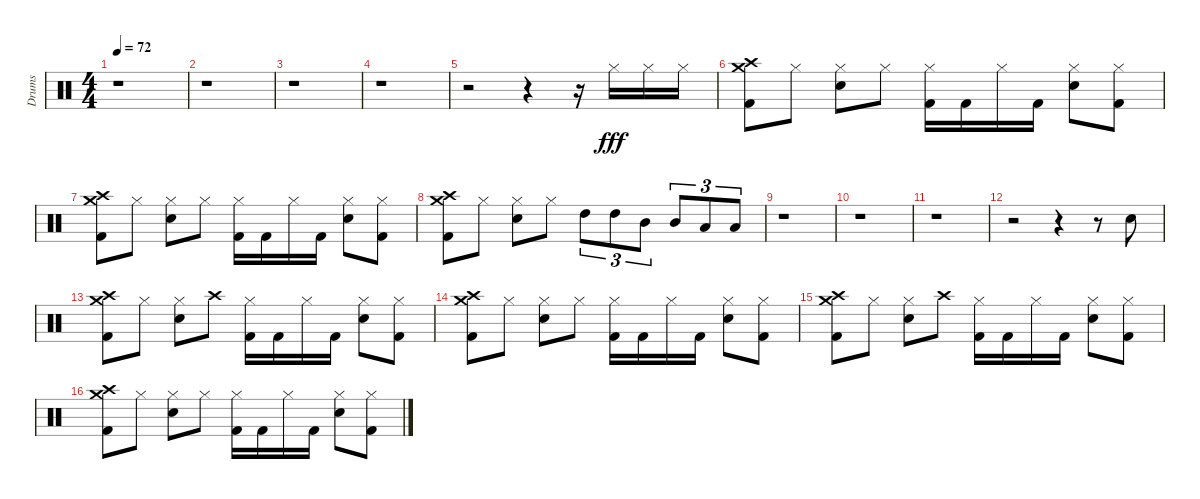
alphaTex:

\track ("Drums" "Drums") {instrument percussion}
\staff {score}
\articulation defaults
\ts (4 4)
\tempo 72
\clef neutral
\ks c
r.1{dy fff} |
r.1 |
r.1 |
r.1 |
r.2 r.4 r.16 "Hi-Hat (closed)".16 "Hi-Hat (closed)".16 "Hi-Hat (closed)".16 |
("Crash high (hit)" "Crash medium (hit)" "Kick (hit) 2").8 "Hi-Hat (closed)".8 ("Hi-Hat (closed)" "Electric Snare (hit)").8 "Hi-Hat (closed)".8 ("Hi-Hat (closed)" "Kick (hit) 2").16 "Kick (hit) 2".16 "Hi-Hat (closed)".16 "Kick (hit) 2".16 ("Hi-Hat (closed)" "Electric Snare (hit)").8 ("Hi-Hat (closed)" "Kick (hit) 2").8 |
("Crash high (hit)" "Crash medium (hit)" "Kick (hit) 2").8 "Hi-Hat (closed)".8 ("Hi-Hat (closed)" "Electric Snare (hit)").8 "Hi-Hat (closed)".8 ("Hi-Hat (closed)" "Kick (hit) 2").16 "Kick (hit) 2".16 "Hi-Hat (closed)".16 "Kick (hit) 2".16 ("Hi-Hat (closed)" "Electric Snare (hit)").8 ("Hi-Hat (closed)" "Kick (hit) 2").8 |
("Crash high (hit)" "Crash medium (hit)" "Kick (hit) 2").8 "Hi-Hat (closed)".8 ("Hi-Hat (closed)" "Electric Snare (hit)").8 "Hi-Hat (closed)".8 "High Tom (hit)".8{tu (3 2)} "High Tom (hit)".8{tu (3 2)} "Mid Tom (hit)".8{tu (3 2)} "Mid Tom (hit)".8{tu (3 2)} "Low Tom (hit)".8{tu (3 2)} "Low Tom (hit)".8{tu (3 2)} |
r.1 |
r.1 |
r.1 |
r.2 r.4 r.8 "Electric Snare (hit)".8 |
("Crash high (hit)" "Crash medium (hit)" "Kick (hit) 2").8 "Hi-Hat (closed)".8 ("Hi-Hat (closed)" "Electric Snare (hit)").8 "Crash high (hit)".8 ("Hi-Hat (closed)" "Kick (hit) 2").16 "Kick (hit) 2".16 "Hi-Hat (closed)".16 "Kick (hit) 2".16 ("Hi-Hat (closed)" "Electric Snare (hit)").8 ("Hi-Hat (closed)" "Kick (hit) 2").8 |
("Crash high (hit)" "Crash medium (hit)" "Kick (hit) 2").8 "Hi-Hat (closed)".8 ("Hi-Hat (closed)" "Electric Snare (hit)").8 "Hi-Hat (closed)".8 ("Hi-Hat (closed)" "Kick (hit) 2").16 "Kick (hit) 2".16 "Hi-Hat (closed)".16 "Kick (hit) 2".16 ("Hi-Hat (closed)" "Electric Snare (hit)").8 ("Hi-Hat (closed)" "Kick (hit) 2").8 |
("Crash high (hit)" "Crash medium (hit)" "Kick (hit) 2").8 "Hi-Hat (closed)".8 ("Hi-Hat (closed)" "Electric Snare (hit)").8 "Crash high (hit)".8 ("Hi-Hat (closed)" "Kick (hit) 2").16 "Kick (hit) 2".16 "Hi-Hat (closed)".16 "Kick (hit) 2".16 ("Hi-Hat (closed)" "Electric Snare (hit)").8 ("Hi-Hat (closed)" "Kick (hit) 2").8 |
("Crash high (hit)" "Crash medium (hit)" "Kick (hit) 2").8 "Hi-Hat (closed)".8 ("Hi-Hat (closed)" "Electric Snare (hit)").8 "Hi-Hat (closed)".8 ("Hi-Hat (closed)" "Kick (hit) 2").16 "Kick (hit) 2".16 "Hi-Hat (closed)".16 "Kick (hit) 2".16 ("Hi-Hat (closed)" "Electric Snare (hit)").8 ("Hi-Hat (closed)" "Kick (hit) 2").8
